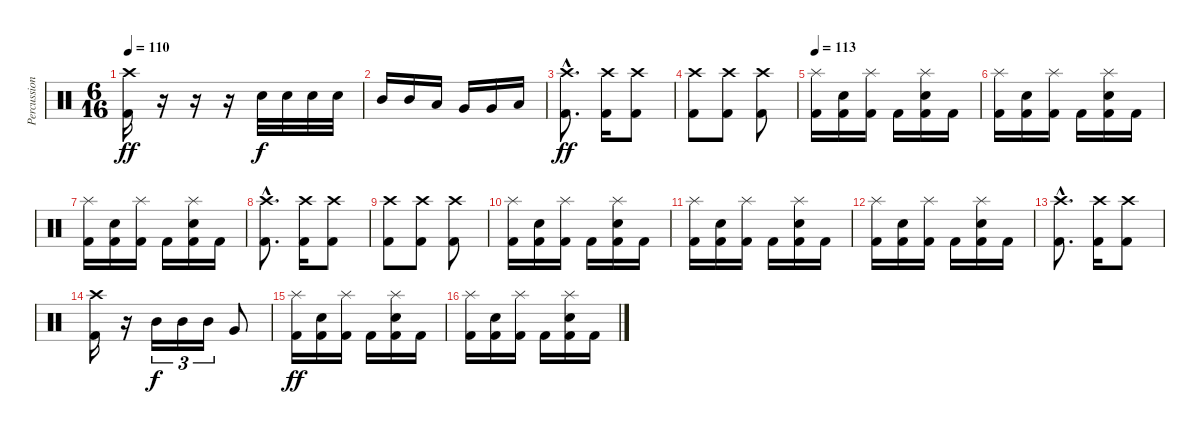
\track ("Percussion" "Percussion") {instrument percussion}
\staff {score}
\articulation defaults
\ts (6 16)
\tempo 110
\clef neutral
\ks c
("Crash high (hit)" "Kick (hit) 2").16{dy ff} r.16 r.16 r.16 "Electric Snare (hit)".32{dy f} "Electric Snare (hit)".32 "Electric Snare (hit)".32 "Electric Snare (hit)".32 |
"Mid Tom (hit)".16 "Mid Tom (hit)".16 "Low Tom (hit)".16 "Very Low Tom (hit)".16 "Very Low Tom (hit)".16 "Low Floor Tom (hit)".16 |
("Crash high (hit)"{hac} "Kick (hit) 2"{hac}).8{d dy ff} ("Crash high (hit)" "Kick (hit) 2").16 ("Crash high (hit)" "Kick (hit) 2").8 |
("Crash high (hit)" "Kick (hit) 2").8 ("Crash high (hit)" "Kick (hit) 2").8 ("Crash high (hit)" "Kick (hit) 2").8 |
\tempo 113
("Splash (hit)" "Kick (hit) 2").16 ("Electric Snare (hit)" "Kick (hit) 2").16 ("Splash (hit)" "Kick (hit) 2").16 "Kick (hit) 2".16 ("Splash (hit)" "Electric Snare (hit)" "Kick (hit) 2").16 "Kick (hit) 2".16 |
("Splash (hit)" "Kick (hit) 2").16 ("Electric Snare (hit)" "Kick (hit) 2").16 ("Splash (hit)" "Kick (hit) 2").16 "Kick (hit) 2".16 ("Splash (hit)" "Electric Snare (hit)" "Kick (hit) 2").16 "Kick (hit) 2".16 |
("Splash (hit)" "Kick (hit) 2").16 ("Electric Snare (hit)" "Kick (hit) 2").16 ("Splash (hit)" "Kick (hit) 2").16 "Kick (hit) 2".16 ("Splash (hit)" "Electric Snare (hit)" "Kick (hit) 2").16 "Kick (hit) 2".16 |
("Crash high (hit)"{hac} "Kick (hit) 2"{hac}).8{d} ("Crash high (hit)" "Kick (hit) 2").16 ("Crash high (hit)" "Kick (hit) 2").8 |
("Crash high (hit)" "Kick (hit) 2").8 ("Crash high (hit)" "Kick (hit) 2").8 ("Crash high (hit)" "Kick (hit) 2").8 |
("Splash (hit)" "Kick (hit) 2").16 ("Electric Snare (hit)" "Kick (hit) 2").16 ("Splash (hit)" "Kick (hit) 2").16 "Kick (hit) 2".16 ("Splash (hit)" "Electric Snare (hit)" "Kick (hit) 2").16 "Kick (hit) 2".16 |
("Splash (hit)" "Kick (hit) 2").16 ("Electric Snare (hit)" "Kick (hit) 2").16 ("Splash (hit)" "Kick (hit) 2").16 "Kick (hit) 2".16 ("Splash (hit)" "Electric Snare (hit)" "Kick (hit) 2").16 "Kick (hit) 2".16 |
("Splash (hit)" "Kick (hit) 2").16 ("Electric Snare (hit)" "Kick (hit) 2").16 ("Splash (hit)" "Kick (hit) 2").16 "Kick (hit) 2".16 ("Splash (hit)" "Electric Snare (hit)" "Kick (hit) 2").16 "Kick (hit) 2".16 |
("Crash high (hit)"{hac} "Kick (hit) 2"{hac}).8{d} ("Crash high (hit)" "Kick (hit) 2").16 ("Crash high (hit)" "Kick (hit) 2").8 |
("Crash high (hit)" "Kick (hit) 2").16 r.16 "Mid Tom (hit)".16{tu (3 2) dy f} "Mid Tom (hit)".16{tu (3 2)} "Mid Tom (hit)".16{tu (3 2)} "Very Low Tom (hit)".8 |
("Splash (hit)" "Kick (hit) 2").16{dy ff} ("Electric Snare (hit)" "Kick (hit) 2").16 ("Splash (hit)" "Kick (hit) 2").16 "Kick (hit) 2".16 ("Splash (hit)" "Electric Snare (hit)" "Kick (hit) 2").16 "Kick (hit) 2".16 |
("Splash (hit)" "Kick (hit) 2").16 ("Electric Snare (hit)" "Kick (hit) 2").16 ("Splash (hit)" "Kick (hit) 2").16 "Kick (hit) 2".16 ("Splash (hit)" "Electric Snare (hit)" "Kick (hit) 2").16 "Kick (hit) 2".16
